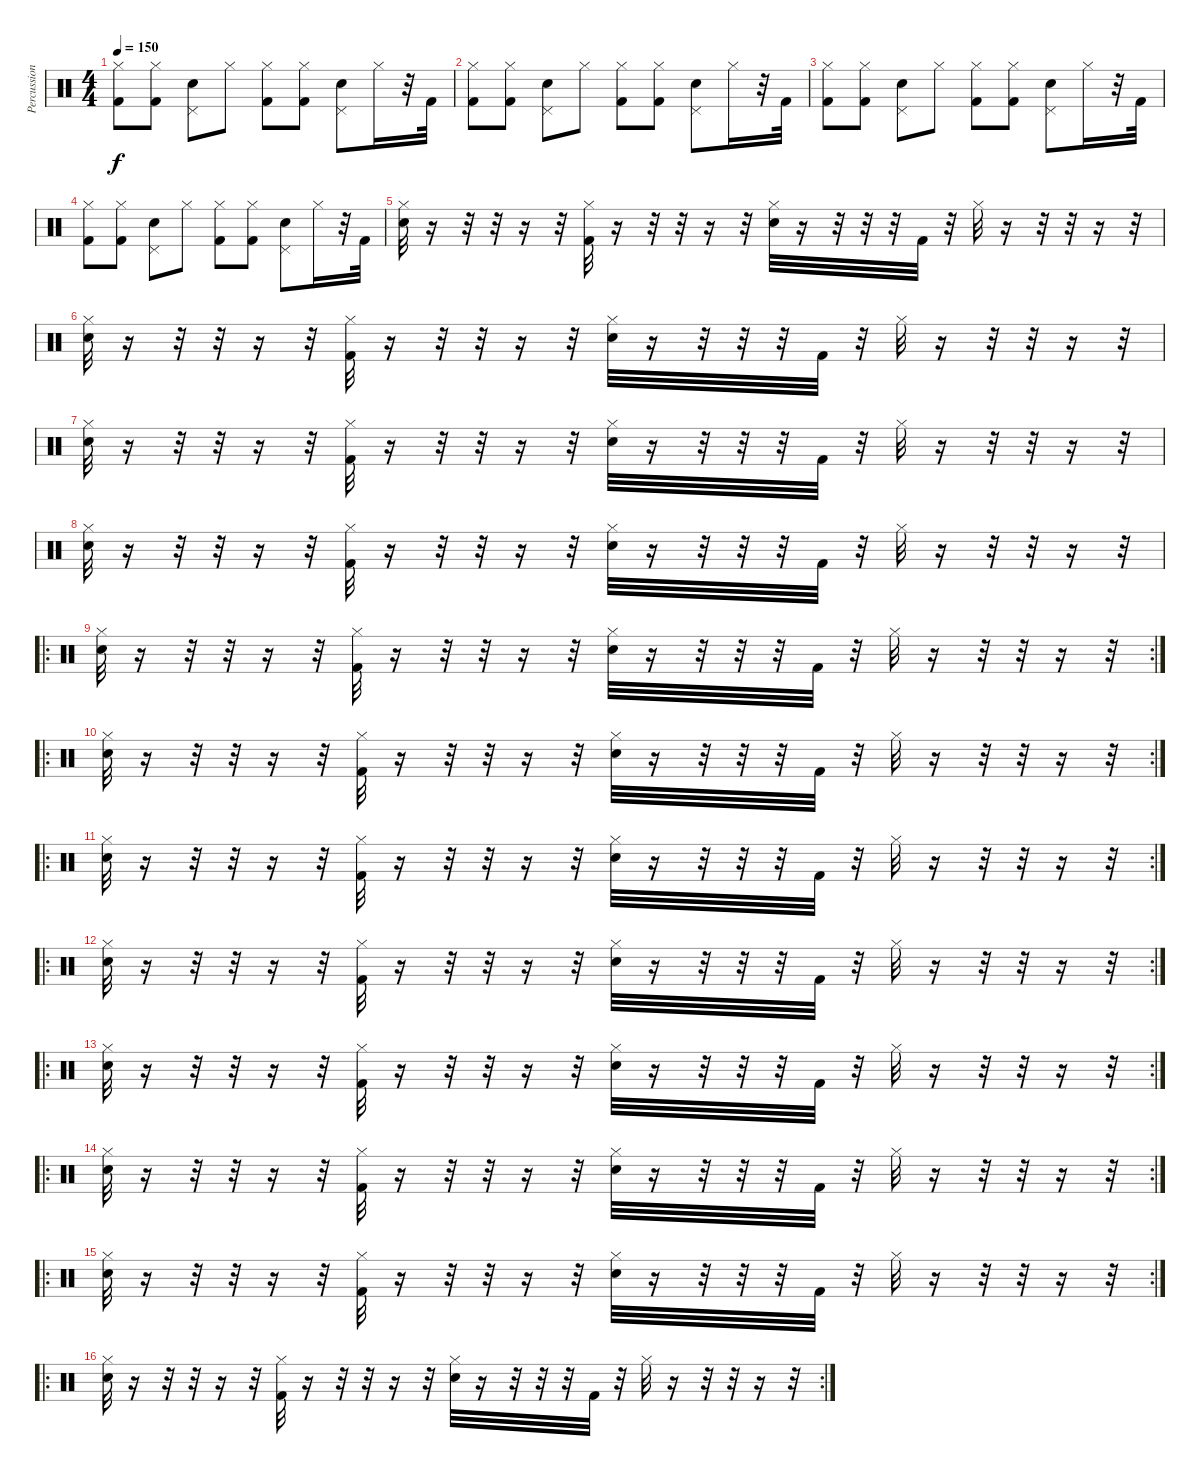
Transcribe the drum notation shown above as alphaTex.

\track ("Percussions" "Percussion") {instrument percussion}
\staff {score}
\articulation defaults
\ts (4 4)
\tempo 150
\clef neutral
\ks c
("Hi-Hat (closed)" "Kick (hit) 2").8{dy f} ("Hi-Hat (closed)" "Kick (hit) 2").8 ("Pedal Hi-Hat (hit)" "Snare (hit) 2").8 "Hi-Hat (closed)".8 ("Hi-Hat (closed)" "Kick (hit) 2").8 ("Hi-Hat (closed)" "Kick (hit) 2").8 ("Pedal Hi-Hat (hit)" "Snare (hit) 2").8 "Hi-Hat (closed)".16 r.32 "Kick (hit) 2".32 |
("Hi-Hat (closed)" "Kick (hit) 2").8 ("Hi-Hat (closed)" "Kick (hit) 2").8 ("Pedal Hi-Hat (hit)" "Snare (hit) 2").8 "Hi-Hat (closed)".8 ("Hi-Hat (closed)" "Kick (hit) 2").8 ("Hi-Hat (closed)" "Kick (hit) 2").8 ("Pedal Hi-Hat (hit)" "Snare (hit) 2").8 "Hi-Hat (closed)".16 r.32 "Kick (hit) 2".32 |
("Hi-Hat (closed)" "Kick (hit) 2").8 ("Hi-Hat (closed)" "Kick (hit) 2").8 ("Pedal Hi-Hat (hit)" "Snare (hit) 2").8 "Hi-Hat (closed)".8 ("Hi-Hat (closed)" "Kick (hit) 2").8 ("Hi-Hat (closed)" "Kick (hit) 2").8 ("Pedal Hi-Hat (hit)" "Snare (hit) 2").8 "Hi-Hat (closed)".16 r.32 "Kick (hit) 2".32 |
("Hi-Hat (closed)" "Kick (hit) 2").8 ("Hi-Hat (closed)" "Kick (hit) 2").8 ("Pedal Hi-Hat (hit)" "Snare (hit) 2").8 "Hi-Hat (closed)".8 ("Hi-Hat (closed)" "Kick (hit) 2").8 ("Hi-Hat (closed)" "Kick (hit) 2").8 ("Pedal Hi-Hat (hit)" "Snare (hit) 2").8 "Hi-Hat (closed)".16 r.32 "Kick (hit) 2".32 |
("Hi-Hat (closed)" "Electric Snare (hit)").32 r.16 r.32 r.32 r.16 r.32 ("Hi-Hat (closed)" "Kick (hit) 2").32 r.16 r.32 r.32 r.16 r.32 ("Hi-Hat (closed)" "Electric Snare (hit)").32 r.16 r.32 r.32 r.32 "Kick (hit) 2".32 r.32 "Hi-Hat (closed)".32 r.16 r.32 r.32 r.16 r.32 |
("Hi-Hat (closed)" "Electric Snare (hit)").32 r.16 r.32 r.32 r.16 r.32 ("Hi-Hat (closed)" "Kick (hit) 2").32 r.16 r.32 r.32 r.16 r.32 ("Hi-Hat (closed)" "Electric Snare (hit)").32 r.16 r.32 r.32 r.32 "Kick (hit) 2".32 r.32 "Hi-Hat (closed)".32 r.16 r.32 r.32 r.16 r.32 |
("Hi-Hat (closed)" "Electric Snare (hit)").32 r.16 r.32 r.32 r.16 r.32 ("Hi-Hat (closed)" "Kick (hit) 2").32 r.16 r.32 r.32 r.16 r.32 ("Hi-Hat (closed)" "Electric Snare (hit)").32 r.16 r.32 r.32 r.32 "Kick (hit) 2".32 r.32 "Hi-Hat (closed)".32 r.16 r.32 r.32 r.16 r.32 |
("Hi-Hat (closed)" "Electric Snare (hit)").32 r.16 r.32 r.32 r.16 r.32 ("Hi-Hat (closed)" "Kick (hit) 2").32 r.16 r.32 r.32 r.16 r.32 ("Hi-Hat (closed)" "Electric Snare (hit)").32 r.16 r.32 r.32 r.32 "Kick (hit) 2".32 r.32 "Hi-Hat (closed)".32 r.16 r.32 r.32 r.16 r.32 |
\ro
\rc 2
("Hi-Hat (closed)" "Electric Snare (hit)").32 r.16 r.32 r.32 r.16 r.32 ("Hi-Hat (closed)" "Kick (hit) 2").32 r.16 r.32 r.32 r.16 r.32 ("Hi-Hat (closed)" "Electric Snare (hit)").32 r.16 r.32 r.32 r.32 "Kick (hit) 2".32 r.32 "Hi-Hat (closed)".32 r.16 r.32 r.32 r.16 r.32 |
\ro
\rc 2
("Hi-Hat (closed)" "Electric Snare (hit)").32 r.16 r.32 r.32 r.16 r.32 ("Hi-Hat (closed)" "Kick (hit) 2").32 r.16 r.32 r.32 r.16 r.32 ("Hi-Hat (closed)" "Electric Snare (hit)").32 r.16 r.32 r.32 r.32 "Kick (hit) 2".32 r.32 "Hi-Hat (closed)".32 r.16 r.32 r.32 r.16 r.32 |
\ro
\rc 2
("Hi-Hat (closed)" "Electric Snare (hit)").32 r.16 r.32 r.32 r.16 r.32 ("Hi-Hat (closed)" "Kick (hit) 2").32 r.16 r.32 r.32 r.16 r.32 ("Hi-Hat (closed)" "Electric Snare (hit)").32 r.16 r.32 r.32 r.32 "Kick (hit) 2".32 r.32 "Hi-Hat (closed)".32 r.16 r.32 r.32 r.16 r.32 |
\ro
\rc 2
("Hi-Hat (closed)" "Electric Snare (hit)").32 r.16 r.32 r.32 r.16 r.32 ("Hi-Hat (closed)" "Kick (hit) 2").32 r.16 r.32 r.32 r.16 r.32 ("Hi-Hat (closed)" "Electric Snare (hit)").32 r.16 r.32 r.32 r.32 "Kick (hit) 2".32 r.32 "Hi-Hat (closed)".32 r.16 r.32 r.32 r.16 r.32 |
\ro
\rc 2
("Hi-Hat (closed)" "Electric Snare (hit)").32 r.16 r.32 r.32 r.16 r.32 ("Hi-Hat (closed)" "Kick (hit) 2").32 r.16 r.32 r.32 r.16 r.32 ("Hi-Hat (closed)" "Electric Snare (hit)").32 r.16 r.32 r.32 r.32 "Kick (hit) 2".32 r.32 "Hi-Hat (closed)".32 r.16 r.32 r.32 r.16 r.32 |
\ro
\rc 2
("Hi-Hat (closed)" "Electric Snare (hit)").32 r.16 r.32 r.32 r.16 r.32 ("Hi-Hat (closed)" "Kick (hit) 2").32 r.16 r.32 r.32 r.16 r.32 ("Hi-Hat (closed)" "Electric Snare (hit)").32 r.16 r.32 r.32 r.32 "Kick (hit) 2".32 r.32 "Hi-Hat (closed)".32 r.16 r.32 r.32 r.16 r.32 |
\ro
\rc 2
("Hi-Hat (closed)" "Electric Snare (hit)").32 r.16 r.32 r.32 r.16 r.32 ("Hi-Hat (closed)" "Kick (hit) 2").32 r.16 r.32 r.32 r.16 r.32 ("Hi-Hat (closed)" "Electric Snare (hit)").32 r.16 r.32 r.32 r.32 "Kick (hit) 2".32 r.32 "Hi-Hat (closed)".32 r.16 r.32 r.32 r.16 r.32 |
\ro
\rc 2
("Hi-Hat (closed)" "Electric Snare (hit)").32 r.16 r.32 r.32 r.16 r.32 ("Hi-Hat (closed)" "Kick (hit) 2").32 r.16 r.32 r.32 r.16 r.32 ("Hi-Hat (closed)" "Electric Snare (hit)").32 r.16 r.32 r.32 r.32 "Kick (hit) 2".32 r.32 "Hi-Hat (closed)".32 r.16 r.32 r.32 r.16 r.32
